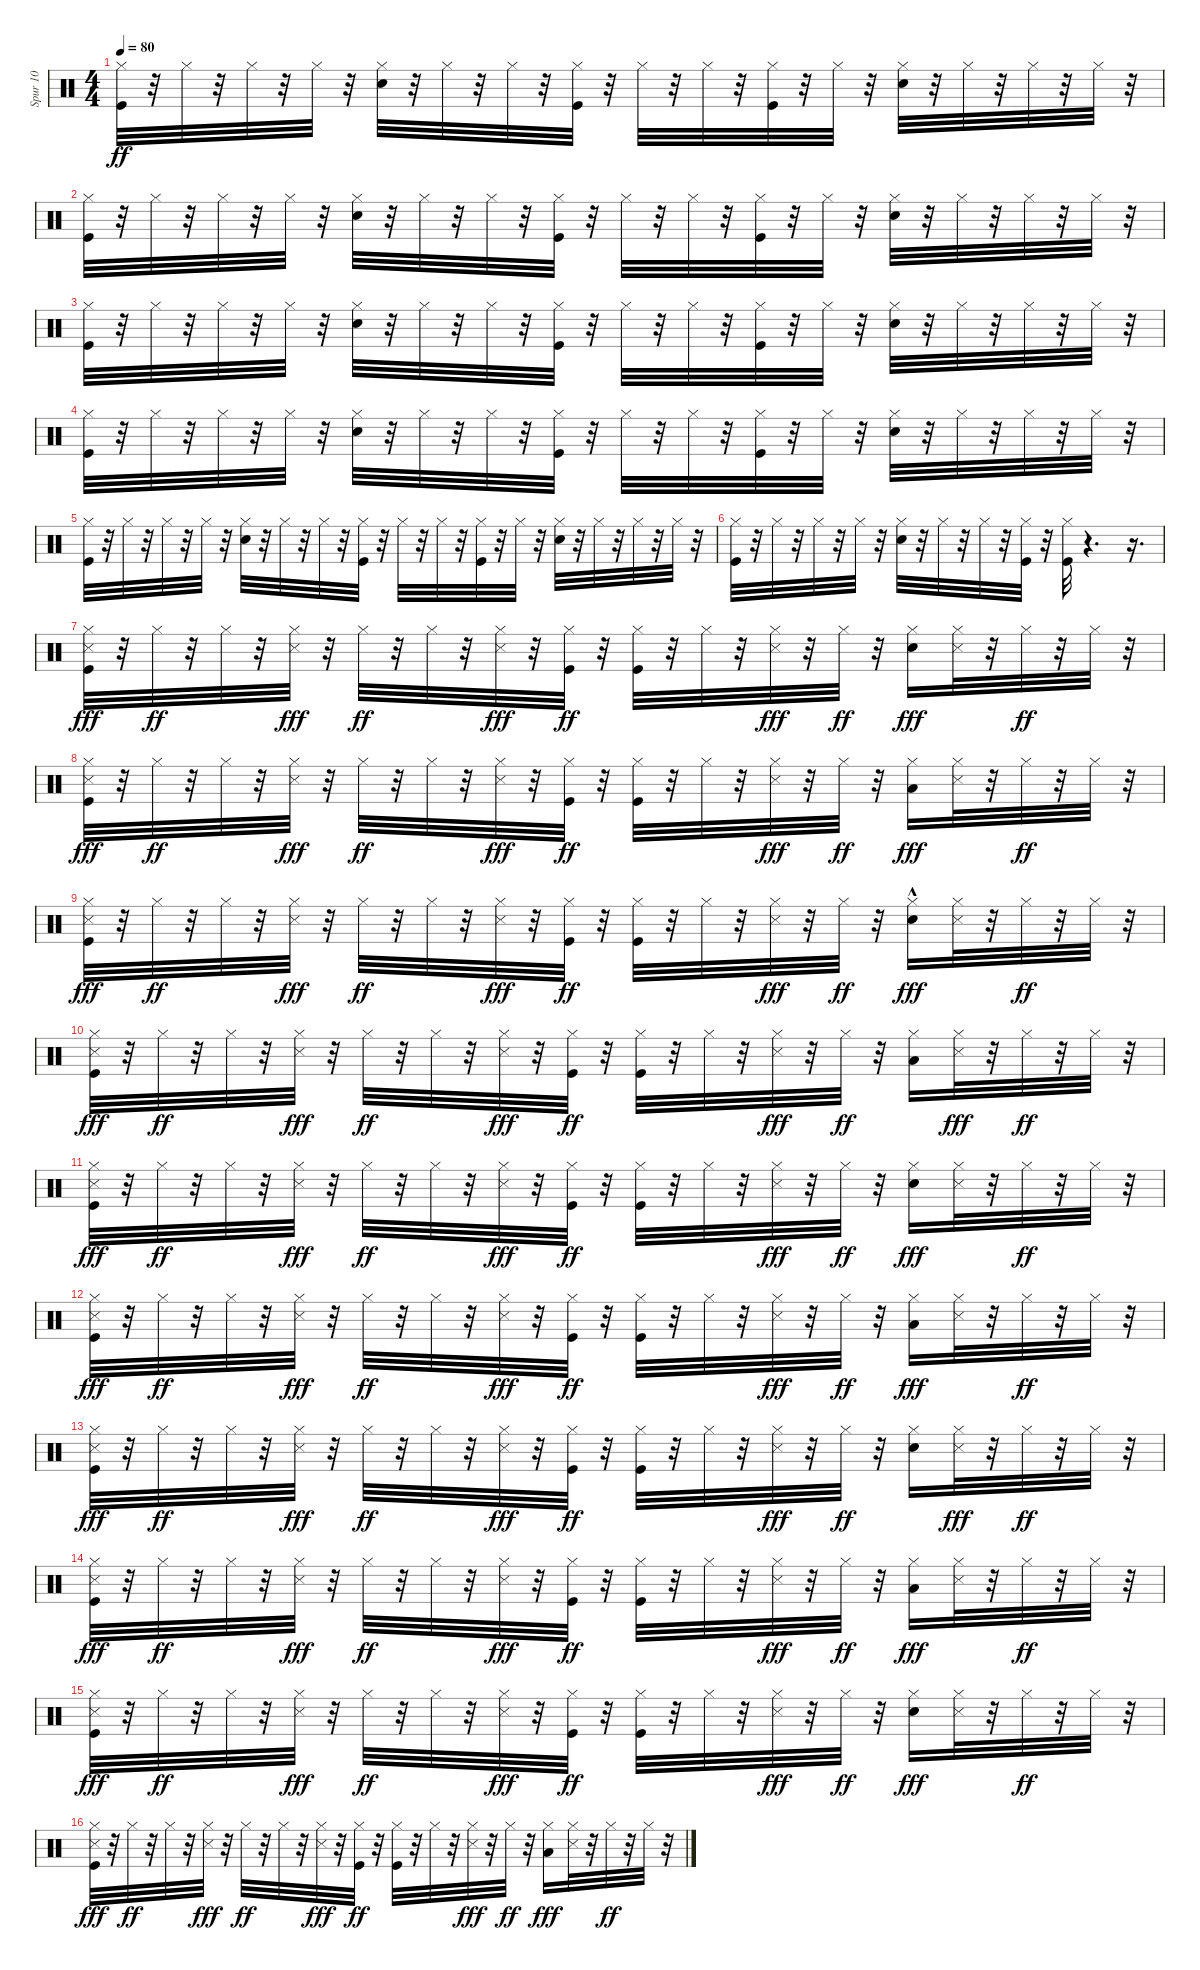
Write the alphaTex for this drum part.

\track ("Spur 10" "Spur 10") {instrument percussion}
\staff {score}
\articulation defaults
\ts (4 4)
\tempo 80
\clef neutral
\ks c
("Kick (hit)" "Hi-Hat (closed)").32{dy ff} r.32 "Hi-Hat (closed)".32 r.32 "Hi-Hat (closed)".32 r.32 "Hi-Hat (closed)".32 r.32 ("Snare (hit) 2" "Hi-Hat (closed)").32 r.32 "Hi-Hat (closed)".32 r.32 "Hi-Hat (closed)".32 r.32 ("Kick (hit)" "Hi-Hat (closed)").32 r.32 "Hi-Hat (closed)".32 r.32 "Hi-Hat (closed)".32 r.32 ("Kick (hit)" "Hi-Hat (closed)").32 r.32 "Hi-Hat (closed)".32 r.32 ("Snare (hit) 2" "Hi-Hat (closed)").32 r.32 "Hi-Hat (closed)".32 r.32 "Hi-Hat (closed)".32 r.32 "Hi-Hat (closed)".32 r.32 |
("Kick (hit)" "Hi-Hat (closed)").32 r.32 "Hi-Hat (closed)".32 r.32 "Hi-Hat (closed)".32 r.32 "Hi-Hat (closed)".32 r.32 ("Snare (hit) 2" "Hi-Hat (closed)").32 r.32 "Hi-Hat (closed)".32 r.32 "Hi-Hat (closed)".32 r.32 ("Kick (hit)" "Hi-Hat (closed)").32 r.32 "Hi-Hat (closed)".32 r.32 "Hi-Hat (closed)".32 r.32 ("Kick (hit)" "Hi-Hat (closed)").32 r.32 "Hi-Hat (closed)".32 r.32 ("Snare (hit) 2" "Hi-Hat (closed)").32 r.32 "Hi-Hat (closed)".32 r.32 "Hi-Hat (closed)".32 r.32 "Hi-Hat (closed)".32 r.32 |
("Kick (hit)" "Hi-Hat (closed)").32 r.32 "Hi-Hat (closed)".32 r.32 "Hi-Hat (closed)".32 r.32 "Hi-Hat (closed)".32 r.32 ("Snare (hit) 2" "Hi-Hat (closed)").32 r.32 "Hi-Hat (closed)".32 r.32 "Hi-Hat (closed)".32 r.32 ("Kick (hit)" "Hi-Hat (closed)").32 r.32 "Hi-Hat (closed)".32 r.32 "Hi-Hat (closed)".32 r.32 ("Kick (hit)" "Hi-Hat (closed)").32 r.32 "Hi-Hat (closed)".32 r.32 ("Snare (hit) 2" "Hi-Hat (closed)").32 r.32 "Hi-Hat (closed)".32 r.32 "Hi-Hat (closed)".32 r.32 "Hi-Hat (closed)".32 r.32 |
("Kick (hit)" "Hi-Hat (closed)").32 r.32 "Hi-Hat (closed)".32 r.32 "Hi-Hat (closed)".32 r.32 "Hi-Hat (closed)".32 r.32 ("Snare (hit) 2" "Hi-Hat (closed)").32 r.32 "Hi-Hat (closed)".32 r.32 "Hi-Hat (closed)".32 r.32 ("Kick (hit)" "Hi-Hat (closed)").32 r.32 "Hi-Hat (closed)".32 r.32 "Hi-Hat (closed)".32 r.32 ("Kick (hit)" "Hi-Hat (closed)").32 r.32 "Hi-Hat (closed)".32 r.32 ("Snare (hit) 2" "Hi-Hat (closed)").32 r.32 "Hi-Hat (closed)".32 r.32 "Hi-Hat (closed)".32 r.32 "Hi-Hat (closed)".32 r.32 |
("Kick (hit)" "Hi-Hat (closed)").32 r.32 "Hi-Hat (closed)".32 r.32 "Hi-Hat (closed)".32 r.32 "Hi-Hat (closed)".32 r.32 ("Snare (hit) 2" "Hi-Hat (closed)").32 r.32 "Hi-Hat (closed)".32 r.32 "Hi-Hat (closed)".32 r.32 ("Kick (hit)" "Hi-Hat (closed)").32 r.32 "Hi-Hat (closed)".32 r.32 "Hi-Hat (closed)".32 r.32 ("Kick (hit)" "Hi-Hat (closed)").32 r.32 "Hi-Hat (closed)".32 r.32 ("Snare (hit) 2" "Hi-Hat (closed)").32 r.32 "Hi-Hat (closed)".32 r.32 "Hi-Hat (closed)".32 r.32 "Hi-Hat (closed)".32 r.32 |
("Kick (hit)" "Hi-Hat (closed)").32 r.32 "Hi-Hat (closed)".32 r.32 "Hi-Hat (closed)".32 r.32 "Hi-Hat (closed)".32 r.32 ("Snare (hit) 2" "Hi-Hat (closed)").32 r.32 "Hi-Hat (closed)".32 r.32 "Hi-Hat (closed)".32 r.32 ("Kick (hit)" "Hi-Hat (closed)").32 r.32 ("Kick (hit)" "Hi-Hat (closed)").32 r.4{d} r.16{d} |
("Kick (hit)" "Hi-Hat (closed)" "Snare (side stick) 3").32{dy fff} r.32 "Hi-Hat (closed)".32{dy ff} r.32 "Hi-Hat (closed)".32 r.32 ("Hi-Hat (closed)" "Snare (side stick) 3").32{dy fff} r.32 "Hi-Hat (closed)".32{dy ff} r.32 "Hi-Hat (closed)".32 r.32 ("Hi-Hat (closed)" "Snare (side stick) 3").32{dy fff} r.32 ("Kick (hit)" "Hi-Hat (closed)").32{dy ff} r.32 ("Kick (hit)" "Hi-Hat (closed)").32 r.32 "Hi-Hat (closed)".32 r.32 ("Hi-Hat (closed)" "Snare (side stick) 3").32{dy fff} r.32 "Hi-Hat (closed)".32{dy ff} r.32 ("Hi-Hat (closed)" "Snare (hit) 2").16{dy fff} ("Hi-Hat (closed)" "Snare (side stick) 3").32 r.32 "Hi-Hat (closed)".32{dy ff} r.32 "Hi-Hat (closed)".32 r.32 |
("Kick (hit)" "Hi-Hat (closed)" "Snare (side stick) 3").32{dy fff} r.32 "Hi-Hat (closed)".32{dy ff} r.32 "Hi-Hat (closed)".32 r.32 ("Hi-Hat (closed)" "Snare (side stick) 3").32{dy fff} r.32 "Hi-Hat (closed)".32{dy ff} r.32 "Hi-Hat (closed)".32 r.32 ("Hi-Hat (closed)" "Snare (side stick) 3").32{dy fff} r.32 ("Kick (hit)" "Hi-Hat (closed)").32{dy ff} r.32 ("Kick (hit)" "Hi-Hat (closed)").32 r.32 "Hi-Hat (closed)".32 r.32 ("Hi-Hat (closed)" "Snare (side stick) 3").32{dy fff} r.32 "Hi-Hat (closed)".32{dy ff} r.32 ("Hi-Hat (closed)" "Low Floor Tom (hit)").16{dy fff} ("Hi-Hat (closed)" "Snare (side stick) 3").32 r.32 "Hi-Hat (closed)".32{dy ff} r.32 "Hi-Hat (closed)".32 r.32 |
("Kick (hit)" "Hi-Hat (closed)" "Snare (side stick) 3").32{dy fff} r.32 "Hi-Hat (closed)".32{dy ff} r.32 "Hi-Hat (closed)".32 r.32 ("Hi-Hat (closed)" "Snare (side stick) 3").32{dy fff} r.32 "Hi-Hat (closed)".32{dy ff} r.32 "Hi-Hat (closed)".32 r.32 ("Hi-Hat (closed)" "Snare (side stick) 3").32{dy fff} r.32 ("Kick (hit)" "Hi-Hat (closed)").32{dy ff} r.32 ("Kick (hit)" "Hi-Hat (closed)").32 r.32 "Hi-Hat (closed)".32 r.32 ("Hi-Hat (closed)" "Snare (side stick) 3").32{dy fff} r.32 "Hi-Hat (closed)".32{dy ff} r.32 ("Hi-Hat (closed)" "Snare (hit) 2"{hac}).16{dy fff} ("Hi-Hat (closed)" "Snare (side stick) 3").32 r.32 "Hi-Hat (closed)".32{dy ff} r.32 "Hi-Hat (closed)".32 r.32 |
("Kick (hit)" "Hi-Hat (closed)" "Snare (side stick) 3").32{dy fff} r.32 "Hi-Hat (closed)".32{dy ff} r.32 "Hi-Hat (closed)".32 r.32 ("Hi-Hat (closed)" "Snare (side stick) 3").32{dy fff} r.32 "Hi-Hat (closed)".32{dy ff} r.32 "Hi-Hat (closed)".32 r.32 ("Hi-Hat (closed)" "Snare (side stick) 3").32{dy fff} r.32 ("Kick (hit)" "Hi-Hat (closed)").32{dy ff} r.32 ("Kick (hit)" "Hi-Hat (closed)").32 r.32 "Hi-Hat (closed)".32 r.32 ("Hi-Hat (closed)" "Snare (side stick) 3").32{dy fff} r.32 "Hi-Hat (closed)".32{dy ff} r.32 ("Low Floor Tom (hit)" "Hi-Hat (closed)").16 ("Hi-Hat (closed)" "Snare (side stick) 3").32{dy fff} r.32 "Hi-Hat (closed)".32{dy ff} r.32 "Hi-Hat (closed)".32 r.32 |
("Kick (hit)" "Hi-Hat (closed)" "Snare (side stick) 3").32{dy fff} r.32 "Hi-Hat (closed)".32{dy ff} r.32 "Hi-Hat (closed)".32 r.32 ("Hi-Hat (closed)" "Snare (side stick) 3").32{dy fff} r.32 "Hi-Hat (closed)".32{dy ff} r.32 "Hi-Hat (closed)".32 r.32 ("Hi-Hat (closed)" "Snare (side stick) 3").32{dy fff} r.32 ("Kick (hit)" "Hi-Hat (closed)").32{dy ff} r.32 ("Kick (hit)" "Hi-Hat (closed)").32 r.32 "Hi-Hat (closed)".32 r.32 ("Hi-Hat (closed)" "Snare (side stick) 3").32{dy fff} r.32 "Hi-Hat (closed)".32{dy ff} r.32 ("Hi-Hat (closed)" "Snare (hit) 2").16{dy fff} ("Hi-Hat (closed)" "Snare (side stick) 3").32 r.32 "Hi-Hat (closed)".32{dy ff} r.32 "Hi-Hat (closed)".32 r.32 |
("Kick (hit)" "Hi-Hat (closed)" "Snare (side stick) 3").32{dy fff} r.32 "Hi-Hat (closed)".32{dy ff} r.32 "Hi-Hat (closed)".32 r.32 ("Hi-Hat (closed)" "Snare (side stick) 3").32{dy fff} r.32 "Hi-Hat (closed)".32{dy ff} r.32 "Hi-Hat (closed)".32 r.32 ("Hi-Hat (closed)" "Snare (side stick) 3").32{dy fff} r.32 ("Kick (hit)" "Hi-Hat (closed)").32{dy ff} r.32 ("Kick (hit)" "Hi-Hat (closed)").32 r.32 "Hi-Hat (closed)".32 r.32 ("Hi-Hat (closed)" "Snare (side stick) 3").32{dy fff} r.32 "Hi-Hat (closed)".32{dy ff} r.32 ("Hi-Hat (closed)" "Low Floor Tom (hit)").16{dy fff} ("Hi-Hat (closed)" "Snare (side stick) 3").32 r.32 "Hi-Hat (closed)".32{dy ff} r.32 "Hi-Hat (closed)".32 r.32 |
("Kick (hit)" "Hi-Hat (closed)" "Snare (side stick) 3").32{dy fff} r.32 "Hi-Hat (closed)".32{dy ff} r.32 "Hi-Hat (closed)".32 r.32 ("Hi-Hat (closed)" "Snare (side stick) 3").32{dy fff} r.32 "Hi-Hat (closed)".32{dy ff} r.32 "Hi-Hat (closed)".32 r.32 ("Hi-Hat (closed)" "Snare (side stick) 3").32{dy fff} r.32 ("Kick (hit)" "Hi-Hat (closed)").32{dy ff} r.32 ("Kick (hit)" "Hi-Hat (closed)").32 r.32 "Hi-Hat (closed)".32 r.32 ("Hi-Hat (closed)" "Snare (side stick) 3").32{dy fff} r.32 "Hi-Hat (closed)".32{dy ff} r.32 ("Snare (hit) 2" "Hi-Hat (closed)").16 ("Hi-Hat (closed)" "Snare (side stick) 3").32{dy fff} r.32 "Hi-Hat (closed)".32{dy ff} r.32 "Hi-Hat (closed)".32 r.32 |
("Kick (hit)" "Hi-Hat (closed)" "Snare (side stick) 3").32{dy fff} r.32 "Hi-Hat (closed)".32{dy ff} r.32 "Hi-Hat (closed)".32 r.32 ("Hi-Hat (closed)" "Snare (side stick) 3").32{dy fff} r.32 "Hi-Hat (closed)".32{dy ff} r.32 "Hi-Hat (closed)".32 r.32 ("Hi-Hat (closed)" "Snare (side stick) 3").32{dy fff} r.32 ("Kick (hit)" "Hi-Hat (closed)").32{dy ff} r.32 ("Kick (hit)" "Hi-Hat (closed)").32 r.32 "Hi-Hat (closed)".32 r.32 ("Hi-Hat (closed)" "Snare (side stick) 3").32{dy fff} r.32 "Hi-Hat (closed)".32{dy ff} r.32 ("Hi-Hat (closed)" "Low Floor Tom (hit)").16{dy fff} ("Hi-Hat (closed)" "Snare (side stick) 3").32 r.32 "Hi-Hat (closed)".32{dy ff} r.32 "Hi-Hat (closed)".32 r.32 |
("Kick (hit)" "Hi-Hat (closed)" "Snare (side stick) 3").32{dy fff} r.32 "Hi-Hat (closed)".32{dy ff} r.32 "Hi-Hat (closed)".32 r.32 ("Hi-Hat (closed)" "Snare (side stick) 3").32{dy fff} r.32 "Hi-Hat (closed)".32{dy ff} r.32 "Hi-Hat (closed)".32 r.32 ("Hi-Hat (closed)" "Snare (side stick) 3").32{dy fff} r.32 ("Kick (hit)" "Hi-Hat (closed)").32{dy ff} r.32 ("Kick (hit)" "Hi-Hat (closed)").32 r.32 "Hi-Hat (closed)".32 r.32 ("Hi-Hat (closed)" "Snare (side stick) 3").32{dy fff} r.32 "Hi-Hat (closed)".32{dy ff} r.32 ("Hi-Hat (closed)" "Snare (hit) 2").16{dy fff} ("Hi-Hat (closed)" "Snare (side stick) 3").32 r.32 "Hi-Hat (closed)".32{dy ff} r.32 "Hi-Hat (closed)".32 r.32 |
("Kick (hit)" "Hi-Hat (closed)" "Snare (side stick) 3").32{dy fff} r.32 "Hi-Hat (closed)".32{dy ff} r.32 "Hi-Hat (closed)".32 r.32 ("Hi-Hat (closed)" "Snare (side stick) 3").32{dy fff} r.32 "Hi-Hat (closed)".32{dy ff} r.32 "Hi-Hat (closed)".32 r.32 ("Hi-Hat (closed)" "Snare (side stick) 3").32{dy fff} r.32 ("Kick (hit)" "Hi-Hat (closed)").32{dy ff} r.32 ("Kick (hit)" "Hi-Hat (closed)").32 r.32 "Hi-Hat (closed)".32 r.32 ("Hi-Hat (closed)" "Snare (side stick) 3").32{dy fff} r.32 "Hi-Hat (closed)".32{dy ff} r.32 ("Hi-Hat (closed)" "Low Floor Tom (hit)").16{dy fff} ("Hi-Hat (closed)" "Snare (side stick) 3").32 r.32 "Hi-Hat (closed)".32{dy ff} r.32 "Hi-Hat (closed)".32 r.32
